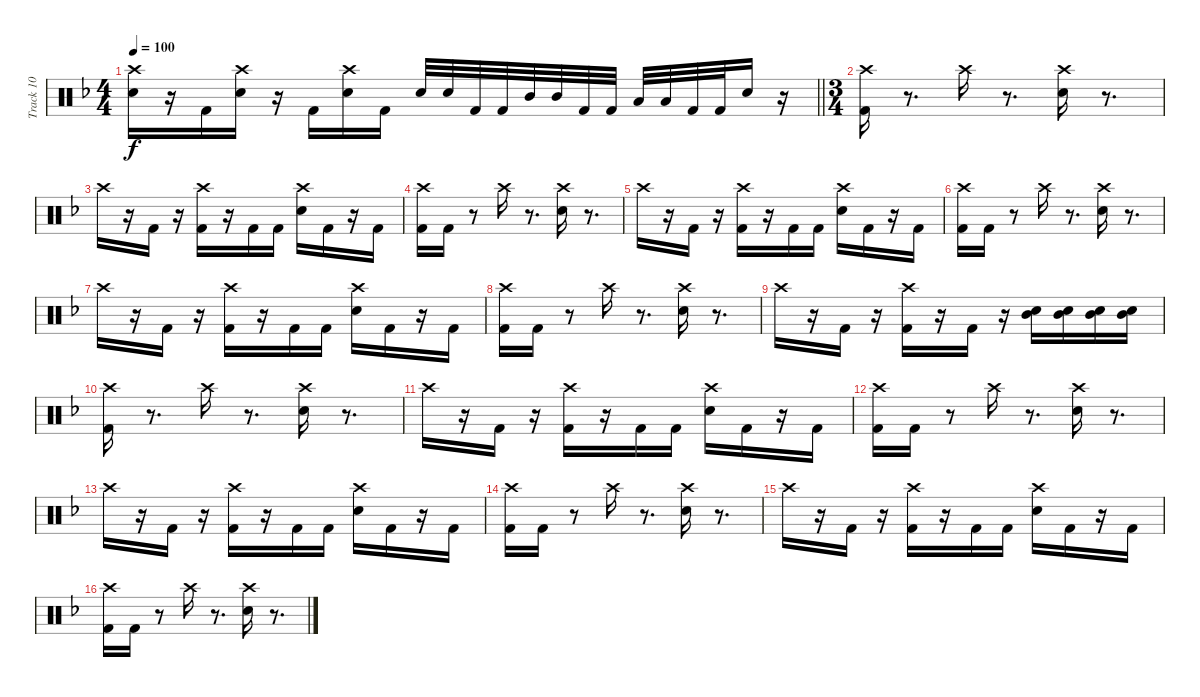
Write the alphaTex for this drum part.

\track ("Track 10" "Track 10") {instrument percussion}
\staff {score}
\articulation defaults
\ts (4 4)
\tempo 100
\clef neutral
\barLineRight lightlight
\ks f
("Snare (hit) 2" "Crash high (hit)").16{dy f} r.16 "Kick (hit) 2".16 ("Snare (hit) 2" "Crash high (hit)").16 r.16 "Kick (hit) 2".16 ("Snare (hit) 2" "Crash high (hit)").16 "Kick (hit) 2".16 "Snare (hit) 2".32 "Snare (hit) 2".32 "Kick (hit) 2".32 "Kick (hit) 2".32 "Mid Tom (hit)".32 "Mid Tom (hit)".32 "Kick (hit) 2".32 "Kick (hit) 2".32 "Low Floor Tom (hit)".32 "Low Floor Tom (hit)".32 "Kick (hit) 2".32 "Kick (hit) 2".32 "Snare (hit) 2".16 r.16 |
\ts (3 4)
("Kick (hit) 2" "Crash high (hit)").16 r.8{d} "Crash high (hit)".16 r.8{d} ("Snare (hit) 2" "Crash high (hit)").16 r.8{d} |
"Crash high (hit)".16 r.16 "Kick (hit) 2".16 r.16 ("Kick (hit) 2" "Crash high (hit)").16 r.16 "Kick (hit) 2".16 "Kick (hit) 2".16 ("Snare (hit) 2" "Crash high (hit)").16 "Kick (hit) 2".16 r.16 "Kick (hit) 2".16 |
("Kick (hit) 2" "Crash high (hit)").16 "Kick (hit) 2".16 r.8 "Crash high (hit)".16 r.8{d} ("Snare (hit) 2" "Crash high (hit)").16 r.8{d} |
"Crash high (hit)".16 r.16 "Kick (hit) 2".16 r.16 ("Kick (hit) 2" "Crash high (hit)").16 r.16 "Kick (hit) 2".16 "Kick (hit) 2".16 ("Snare (hit) 2" "Crash high (hit)").16 "Kick (hit) 2".16 r.16 "Kick (hit) 2".16 |
("Kick (hit) 2" "Crash high (hit)").16 "Kick (hit) 2".16 r.8 "Crash high (hit)".16 r.8{d} ("Snare (hit) 2" "Crash high (hit)").16 r.8{d} |
"Crash high (hit)".16 r.16 "Kick (hit) 2".16 r.16 ("Kick (hit) 2" "Crash high (hit)").16 r.16 "Kick (hit) 2".16 "Kick (hit) 2".16 ("Snare (hit) 2" "Crash high (hit)").16 "Kick (hit) 2".16 r.16 "Kick (hit) 2".16 |
("Kick (hit) 2" "Crash high (hit)").16 "Kick (hit) 2".16 r.8 "Crash high (hit)".16 r.8{d} ("Snare (hit) 2" "Crash high (hit)").16 r.8{d} |
"Crash high (hit)".16 r.16 "Kick (hit) 2".16 r.16 ("Kick (hit) 2" "Crash high (hit)").16 r.16 "Kick (hit) 2".16 r.16 ("Snare (hit) 2" "Mid Tom (hit)").16 ("Snare (hit) 2" "Mid Tom (hit)").16 ("Snare (hit) 2" "Mid Tom (hit)").16 ("Snare (hit) 2" "Mid Tom (hit)").16 |
("Kick (hit) 2" "Crash high (hit)").16 r.8{d} "Crash high (hit)".16 r.8{d} ("Snare (hit) 2" "Crash high (hit)").16 r.8{d} |
"Crash high (hit)".16 r.16 "Kick (hit) 2".16 r.16 ("Kick (hit) 2" "Crash high (hit)").16 r.16 "Kick (hit) 2".16 "Kick (hit) 2".16 ("Snare (hit) 2" "Crash high (hit)").16 "Kick (hit) 2".16 r.16 "Kick (hit) 2".16 |
("Kick (hit) 2" "Crash high (hit)").16 "Kick (hit) 2".16 r.8 "Crash high (hit)".16 r.8{d} ("Snare (hit) 2" "Crash high (hit)").16 r.8{d} |
"Crash high (hit)".16 r.16 "Kick (hit) 2".16 r.16 ("Kick (hit) 2" "Crash high (hit)").16 r.16 "Kick (hit) 2".16 "Kick (hit) 2".16 ("Snare (hit) 2" "Crash high (hit)").16 "Kick (hit) 2".16 r.16 "Kick (hit) 2".16 |
("Kick (hit) 2" "Crash high (hit)").16 "Kick (hit) 2".16 r.8 "Crash high (hit)".16 r.8{d} ("Snare (hit) 2" "Crash high (hit)").16 r.8{d} |
"Crash high (hit)".16 r.16 "Kick (hit) 2".16 r.16 ("Kick (hit) 2" "Crash high (hit)").16 r.16 "Kick (hit) 2".16 "Kick (hit) 2".16 ("Snare (hit) 2" "Crash high (hit)").16 "Kick (hit) 2".16 r.16 "Kick (hit) 2".16 |
("Kick (hit) 2" "Crash high (hit)").16 "Kick (hit) 2".16 r.8 "Crash high (hit)".16 r.8{d} ("Snare (hit) 2" "Crash high (hit)").16 r.8{d}
